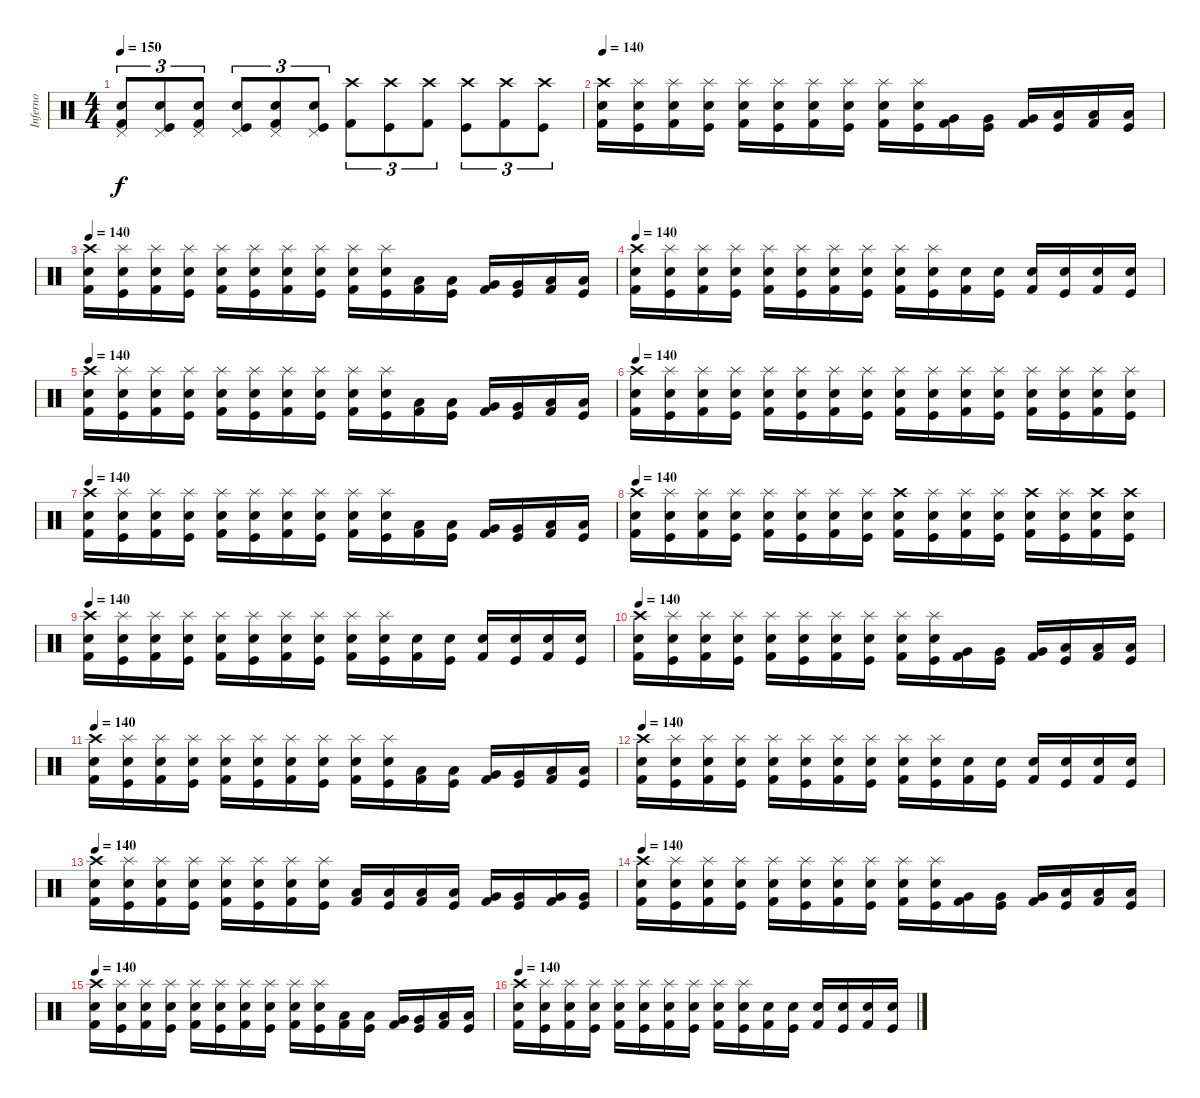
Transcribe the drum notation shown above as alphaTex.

\track ("Inferno" "Inferno") {instrument percussion}
\staff {score}
\articulation defaults
\ts (4 4)
\tempo 150
\clef neutral
\ks c
("Pedal Hi-Hat (hit)" "Electric Snare (hit)" "Kick (hit) 2").8{tu (3 2) dy f} ("Pedal Hi-Hat (hit)" "Electric Snare (hit)" "Kick (hit)").8{tu (3 2)} ("Pedal Hi-Hat (hit)" "Electric Snare (hit)" "Kick (hit) 2").8{tu (3 2)} ("Pedal Hi-Hat (hit)" "Electric Snare (hit)" "Kick (hit)").8{tu (3 2)} ("Pedal Hi-Hat (hit)" "Electric Snare (hit)" "Kick (hit) 2").8{tu (3 2)} ("Pedal Hi-Hat (hit)" "Electric Snare (hit)" "Kick (hit)").8{tu (3 2)} ("Crash high (hit)" "Kick (hit) 2").8{tu (3 2)} ("Crash high (hit)" "Kick (hit)").8{tu (3 2)} ("Crash high (hit)" "Kick (hit) 2").8{tu (3 2)} ("Crash high (hit)" "Kick (hit)").8{tu (3 2)} ("Crash high (hit)" "Kick (hit) 2").8{tu (3 2)} ("Crash high (hit)" "Kick (hit)").8{tu (3 2)} |
\tempo 140
("Crash high (hit)" "Electric Snare (hit)" "Kick (hit) 2").16 ("Splash (hit)" "Electric Snare (hit)" "Kick (hit)").16 ("Splash (hit)" "Electric Snare (hit)" "Kick (hit) 2").16 ("Splash (hit)" "Electric Snare (hit)" "Kick (hit)").16 ("Splash (hit)" "Electric Snare (hit)" "Kick (hit) 2").16 ("Splash (hit)" "Electric Snare (hit)" "Kick (hit)").16 ("Splash (hit)" "Electric Snare (hit)" "Kick (hit) 2").16 ("Splash (hit)" "Electric Snare (hit)" "Kick (hit)").16 ("Splash (hit)" "Electric Snare (hit)" "Kick (hit) 2").16 ("Splash (hit)" "Electric Snare (hit)" "Kick (hit)").16 ("Very Low Tom (hit)" "Kick (hit) 2").16 ("Very Low Tom (hit)" "Kick (hit)").16 ("Very Low Tom (hit)" "Kick (hit) 2").16 ("Low Floor Tom (hit)" "Kick (hit)").16 ("Low Floor Tom (hit)" "Kick (hit) 2").16 ("Low Floor Tom (hit)" "Kick (hit)").16 |
\tempo 140
("Crash high (hit)" "Electric Snare (hit)" "Kick (hit) 2").16 ("Splash (hit)" "Electric Snare (hit)" "Kick (hit)").16 ("Splash (hit)" "Electric Snare (hit)" "Kick (hit) 2").16 ("Splash (hit)" "Electric Snare (hit)" "Kick (hit)").16 ("Splash (hit)" "Electric Snare (hit)" "Kick (hit) 2").16 ("Splash (hit)" "Electric Snare (hit)" "Kick (hit)").16 ("Splash (hit)" "Electric Snare (hit)" "Kick (hit) 2").16 ("Splash (hit)" "Electric Snare (hit)" "Kick (hit)").16 ("Splash (hit)" "Electric Snare (hit)" "Kick (hit) 2").16 ("Splash (hit)" "Electric Snare (hit)" "Kick (hit)").16 ("Low Tom (hit)" "Kick (hit) 2").16 ("Low Tom (hit)" "Kick (hit)").16 ("Very Low Tom (hit)" "Kick (hit) 2").16 ("Very Low Tom (hit)" "Kick (hit)").16 ("Low Floor Tom (hit)" "Kick (hit) 2").16 ("Low Floor Tom (hit)" "Kick (hit)").16 |
\tempo 140
("Crash high (hit)" "Electric Snare (hit)" "Kick (hit) 2").16 ("Splash (hit)" "Electric Snare (hit)" "Kick (hit)").16 ("Splash (hit)" "Electric Snare (hit)" "Kick (hit) 2").16 ("Splash (hit)" "Electric Snare (hit)" "Kick (hit)").16 ("Splash (hit)" "Electric Snare (hit)" "Kick (hit) 2").16 ("Splash (hit)" "Electric Snare (hit)" "Kick (hit)").16 ("Splash (hit)" "Electric Snare (hit)" "Kick (hit) 2").16 ("Splash (hit)" "Electric Snare (hit)" "Kick (hit)").16 ("Splash (hit)" "Electric Snare (hit)" "Kick (hit) 2").16 ("Splash (hit)" "Electric Snare (hit)" "Kick (hit)").16 ("Electric Snare (hit)" "Kick (hit) 2").16 ("Electric Snare (hit)" "Kick (hit)").16 ("Electric Snare (hit)" "Kick (hit) 2").16 ("Electric Snare (hit)" "Kick (hit)").16 ("Electric Snare (hit)" "Kick (hit) 2").16 ("Electric Snare (hit)" "Kick (hit)").16 |
\tempo 140
("Crash high (hit)" "Electric Snare (hit)" "Kick (hit) 2").16 ("Splash (hit)" "Electric Snare (hit)" "Kick (hit)").16 ("Splash (hit)" "Electric Snare (hit)" "Kick (hit) 2").16 ("Splash (hit)" "Electric Snare (hit)" "Kick (hit)").16 ("Splash (hit)" "Electric Snare (hit)" "Kick (hit) 2").16 ("Splash (hit)" "Electric Snare (hit)" "Kick (hit)").16 ("Splash (hit)" "Electric Snare (hit)" "Kick (hit) 2").16 ("Splash (hit)" "Electric Snare (hit)" "Kick (hit)").16 ("Splash (hit)" "Electric Snare (hit)" "Kick (hit) 2").16 ("Splash (hit)" "Electric Snare (hit)" "Kick (hit)").16 ("Low Tom (hit)" "Kick (hit) 2").16 ("Low Tom (hit)" "Kick (hit)").16 ("Very Low Tom (hit)" "Kick (hit) 2").16 ("Very Low Tom (hit)" "Kick (hit)").16 ("Low Floor Tom (hit)" "Kick (hit) 2").16 ("Low Floor Tom (hit)" "Kick (hit)").16 |
\tempo 140
("Crash high (hit)" "Electric Snare (hit)" "Kick (hit) 2").16 ("Splash (hit)" "Electric Snare (hit)" "Kick (hit)").16 ("Splash (hit)" "Electric Snare (hit)" "Kick (hit) 2").16 ("Splash (hit)" "Electric Snare (hit)" "Kick (hit)").16 ("Splash (hit)" "Electric Snare (hit)" "Kick (hit) 2").16 ("Splash (hit)" "Electric Snare (hit)" "Kick (hit)").16 ("Splash (hit)" "Electric Snare (hit)" "Kick (hit) 2").16 ("Splash (hit)" "Electric Snare (hit)" "Kick (hit)").16 ("Splash (hit)" "Electric Snare (hit)" "Kick (hit) 2").16 ("Splash (hit)" "Electric Snare (hit)" "Kick (hit)").16 ("Splash (hit)" "Electric Snare (hit)" "Kick (hit) 2").16 ("Splash (hit)" "Electric Snare (hit)" "Kick (hit)").16 ("Splash (hit)" "Electric Snare (hit)" "Kick (hit) 2").16 ("Splash (hit)" "Electric Snare (hit)" "Kick (hit)").16 ("Splash (hit)" "Electric Snare (hit)" "Kick (hit) 2").16 ("Splash (hit)" "Electric Snare (hit)" "Kick (hit)").16 |
\tempo 140
("Crash high (hit)" "Electric Snare (hit)" "Kick (hit) 2").16 ("Splash (hit)" "Electric Snare (hit)" "Kick (hit)").16 ("Splash (hit)" "Electric Snare (hit)" "Kick (hit) 2").16 ("Splash (hit)" "Electric Snare (hit)" "Kick (hit)").16 ("Splash (hit)" "Electric Snare (hit)" "Kick (hit) 2").16 ("Splash (hit)" "Electric Snare (hit)" "Kick (hit)").16 ("Splash (hit)" "Electric Snare (hit)" "Kick (hit) 2").16 ("Splash (hit)" "Electric Snare (hit)" "Kick (hit)").16 ("Splash (hit)" "Electric Snare (hit)" "Kick (hit) 2").16 ("Splash (hit)" "Electric Snare (hit)" "Kick (hit)").16 ("Low Tom (hit)" "Kick (hit) 2").16 ("Low Tom (hit)" "Kick (hit)").16 ("Very Low Tom (hit)" "Kick (hit) 2").16 ("Very Low Tom (hit)" "Kick (hit)").16 ("Low Floor Tom (hit)" "Kick (hit) 2").16 ("Low Floor Tom (hit)" "Kick (hit)").16 |
\tempo 140
("Crash high (hit)" "Electric Snare (hit)" "Kick (hit) 2").16 ("Splash (hit)" "Electric Snare (hit)" "Kick (hit)").16 ("Splash (hit)" "Electric Snare (hit)" "Kick (hit) 2").16 ("Splash (hit)" "Electric Snare (hit)" "Kick (hit)").16 ("Splash (hit)" "Electric Snare (hit)" "Kick (hit) 2").16 ("Splash (hit)" "Electric Snare (hit)" "Kick (hit)").16 ("Splash (hit)" "Electric Snare (hit)" "Kick (hit) 2").16 ("Splash (hit)" "Electric Snare (hit)" "Kick (hit)").16 ("Crash high (hit)" "Electric Snare (hit)" "Kick (hit) 2").16 ("Splash (hit)" "Electric Snare (hit)" "Kick (hit)").16 ("Splash (hit)" "Electric Snare (hit)" "Kick (hit) 2").16 ("Splash (hit)" "Electric Snare (hit)" "Kick (hit)").16 ("Crash high (hit)" "Electric Snare (hit)" "Kick (hit) 2").16 ("Splash (hit)" "Electric Snare (hit)" "Kick (hit)").16 ("Crash high (hit)" "Electric Snare (hit)" "Kick (hit) 2").16 ("Crash high (hit)" "Electric Snare (hit)" "Kick (hit)").16 |
\tempo 140
("Crash high (hit)" "Electric Snare (hit)" "Kick (hit) 2").16 ("Splash (hit)" "Electric Snare (hit)" "Kick (hit)").16 ("Splash (hit)" "Electric Snare (hit)" "Kick (hit) 2").16 ("Splash (hit)" "Electric Snare (hit)" "Kick (hit)").16 ("Splash (hit)" "Electric Snare (hit)" "Kick (hit) 2").16 ("Splash (hit)" "Electric Snare (hit)" "Kick (hit)").16 ("Splash (hit)" "Electric Snare (hit)" "Kick (hit) 2").16 ("Splash (hit)" "Electric Snare (hit)" "Kick (hit)").16 ("Splash (hit)" "Electric Snare (hit)" "Kick (hit) 2").16 ("Splash (hit)" "Electric Snare (hit)" "Kick (hit)").16 ("Electric Snare (hit)" "Kick (hit) 2").16 ("Electric Snare (hit)" "Kick (hit)").16 ("Electric Snare (hit)" "Kick (hit) 2").16 ("Electric Snare (hit)" "Kick (hit)").16 ("Electric Snare (hit)" "Kick (hit) 2").16 ("Electric Snare (hit)" "Kick (hit)").16 |
\tempo 140
("Crash high (hit)" "Electric Snare (hit)" "Kick (hit) 2").16 ("Splash (hit)" "Electric Snare (hit)" "Kick (hit)").16 ("Splash (hit)" "Electric Snare (hit)" "Kick (hit) 2").16 ("Splash (hit)" "Electric Snare (hit)" "Kick (hit)").16 ("Splash (hit)" "Electric Snare (hit)" "Kick (hit) 2").16 ("Splash (hit)" "Electric Snare (hit)" "Kick (hit)").16 ("Splash (hit)" "Electric Snare (hit)" "Kick (hit) 2").16 ("Splash (hit)" "Electric Snare (hit)" "Kick (hit)").16 ("Splash (hit)" "Electric Snare (hit)" "Kick (hit) 2").16 ("Splash (hit)" "Electric Snare (hit)" "Kick (hit)").16 ("Very Low Tom (hit)" "Kick (hit) 2").16 ("Very Low Tom (hit)" "Kick (hit)").16 ("Very Low Tom (hit)" "Kick (hit) 2").16 ("Low Floor Tom (hit)" "Kick (hit)").16 ("Low Floor Tom (hit)" "Kick (hit) 2").16 ("Low Floor Tom (hit)" "Kick (hit)").16 |
\tempo 140
("Crash high (hit)" "Electric Snare (hit)" "Kick (hit) 2").16 ("Splash (hit)" "Electric Snare (hit)" "Kick (hit)").16 ("Splash (hit)" "Electric Snare (hit)" "Kick (hit) 2").16 ("Splash (hit)" "Electric Snare (hit)" "Kick (hit)").16 ("Splash (hit)" "Electric Snare (hit)" "Kick (hit) 2").16 ("Splash (hit)" "Electric Snare (hit)" "Kick (hit)").16 ("Splash (hit)" "Electric Snare (hit)" "Kick (hit) 2").16 ("Splash (hit)" "Electric Snare (hit)" "Kick (hit)").16 ("Splash (hit)" "Electric Snare (hit)" "Kick (hit) 2").16 ("Splash (hit)" "Electric Snare (hit)" "Kick (hit)").16 ("Low Tom (hit)" "Kick (hit) 2").16 ("Low Tom (hit)" "Kick (hit)").16 ("Very Low Tom (hit)" "Kick (hit) 2").16 ("Very Low Tom (hit)" "Kick (hit)").16 ("Low Floor Tom (hit)" "Kick (hit) 2").16 ("Low Floor Tom (hit)" "Kick (hit)").16 |
\tempo 140
("Crash high (hit)" "Electric Snare (hit)" "Kick (hit) 2").16 ("Splash (hit)" "Electric Snare (hit)" "Kick (hit)").16 ("Splash (hit)" "Electric Snare (hit)" "Kick (hit) 2").16 ("Splash (hit)" "Electric Snare (hit)" "Kick (hit)").16 ("Splash (hit)" "Electric Snare (hit)" "Kick (hit) 2").16 ("Splash (hit)" "Electric Snare (hit)" "Kick (hit)").16 ("Splash (hit)" "Electric Snare (hit)" "Kick (hit) 2").16 ("Splash (hit)" "Electric Snare (hit)" "Kick (hit)").16 ("Splash (hit)" "Electric Snare (hit)" "Kick (hit) 2").16 ("Splash (hit)" "Electric Snare (hit)" "Kick (hit)").16 ("Electric Snare (hit)" "Kick (hit) 2").16 ("Electric Snare (hit)" "Kick (hit)").16 ("Electric Snare (hit)" "Kick (hit) 2").16 ("Electric Snare (hit)" "Kick (hit)").16 ("Electric Snare (hit)" "Kick (hit) 2").16 ("Electric Snare (hit)" "Kick (hit)").16 |
\tempo 140
("Crash high (hit)" "Electric Snare (hit)" "Kick (hit) 2").16 ("Splash (hit)" "Electric Snare (hit)" "Kick (hit)").16 ("Splash (hit)" "Electric Snare (hit)" "Kick (hit) 2").16 ("Splash (hit)" "Electric Snare (hit)" "Kick (hit)").16 ("Splash (hit)" "Electric Snare (hit)" "Kick (hit) 2").16 ("Splash (hit)" "Electric Snare (hit)" "Kick (hit)").16 ("Splash (hit)" "Electric Snare (hit)" "Kick (hit) 2").16 ("Splash (hit)" "Electric Snare (hit)" "Kick (hit)").16 ("Low Tom (hit)" "Kick (hit) 2").16 ("Low Tom (hit)" "Kick (hit)").16 ("Low Tom (hit)" "Kick (hit) 2").16 ("Low Tom (hit)" "Kick (hit)").16 ("Very Low Tom (hit)" "Kick (hit) 2").16 ("Very Low Tom (hit)" "Kick (hit)").16 ("Very Low Tom (hit)" "Kick (hit) 2").16 ("Very Low Tom (hit)" "Kick (hit)").16 |
\tempo 140
("Crash high (hit)" "Electric Snare (hit)" "Kick (hit) 2").16 ("Splash (hit)" "Electric Snare (hit)" "Kick (hit)").16 ("Splash (hit)" "Electric Snare (hit)" "Kick (hit) 2").16 ("Splash (hit)" "Electric Snare (hit)" "Kick (hit)").16 ("Splash (hit)" "Electric Snare (hit)" "Kick (hit) 2").16 ("Splash (hit)" "Electric Snare (hit)" "Kick (hit)").16 ("Splash (hit)" "Electric Snare (hit)" "Kick (hit) 2").16 ("Splash (hit)" "Electric Snare (hit)" "Kick (hit)").16 ("Splash (hit)" "Electric Snare (hit)" "Kick (hit) 2").16 ("Splash (hit)" "Electric Snare (hit)" "Kick (hit)").16 ("Very Low Tom (hit)" "Kick (hit) 2").16 ("Very Low Tom (hit)" "Kick (hit)").16 ("Very Low Tom (hit)" "Kick (hit) 2").16 ("Low Floor Tom (hit)" "Kick (hit)").16 ("Low Floor Tom (hit)" "Kick (hit) 2").16 ("Low Floor Tom (hit)" "Kick (hit)").16 |
\tempo 140
("Crash high (hit)" "Electric Snare (hit)" "Kick (hit) 2").16 ("Splash (hit)" "Electric Snare (hit)" "Kick (hit)").16 ("Splash (hit)" "Electric Snare (hit)" "Kick (hit) 2").16 ("Splash (hit)" "Electric Snare (hit)" "Kick (hit)").16 ("Splash (hit)" "Electric Snare (hit)" "Kick (hit) 2").16 ("Splash (hit)" "Electric Snare (hit)" "Kick (hit)").16 ("Splash (hit)" "Electric Snare (hit)" "Kick (hit) 2").16 ("Splash (hit)" "Electric Snare (hit)" "Kick (hit)").16 ("Splash (hit)" "Electric Snare (hit)" "Kick (hit) 2").16 ("Splash (hit)" "Electric Snare (hit)" "Kick (hit)").16 ("Low Tom (hit)" "Kick (hit) 2").16 ("Low Tom (hit)" "Kick (hit)").16 ("Very Low Tom (hit)" "Kick (hit) 2").16 ("Very Low Tom (hit)" "Kick (hit)").16 ("Low Floor Tom (hit)" "Kick (hit) 2").16 ("Low Floor Tom (hit)" "Kick (hit)").16 |
\tempo 140
("Crash high (hit)" "Electric Snare (hit)" "Kick (hit) 2").16 ("Splash (hit)" "Electric Snare (hit)" "Kick (hit)").16 ("Splash (hit)" "Electric Snare (hit)" "Kick (hit) 2").16 ("Splash (hit)" "Electric Snare (hit)" "Kick (hit)").16 ("Splash (hit)" "Electric Snare (hit)" "Kick (hit) 2").16 ("Splash (hit)" "Electric Snare (hit)" "Kick (hit)").16 ("Splash (hit)" "Electric Snare (hit)" "Kick (hit) 2").16 ("Splash (hit)" "Electric Snare (hit)" "Kick (hit)").16 ("Splash (hit)" "Electric Snare (hit)" "Kick (hit) 2").16 ("Splash (hit)" "Electric Snare (hit)" "Kick (hit)").16 ("Electric Snare (hit)" "Kick (hit) 2").16 ("Electric Snare (hit)" "Kick (hit)").16 ("Electric Snare (hit)" "Kick (hit) 2").16 ("Electric Snare (hit)" "Kick (hit)").16 ("Electric Snare (hit)" "Kick (hit) 2").16 ("Electric Snare (hit)" "Kick (hit)").16
